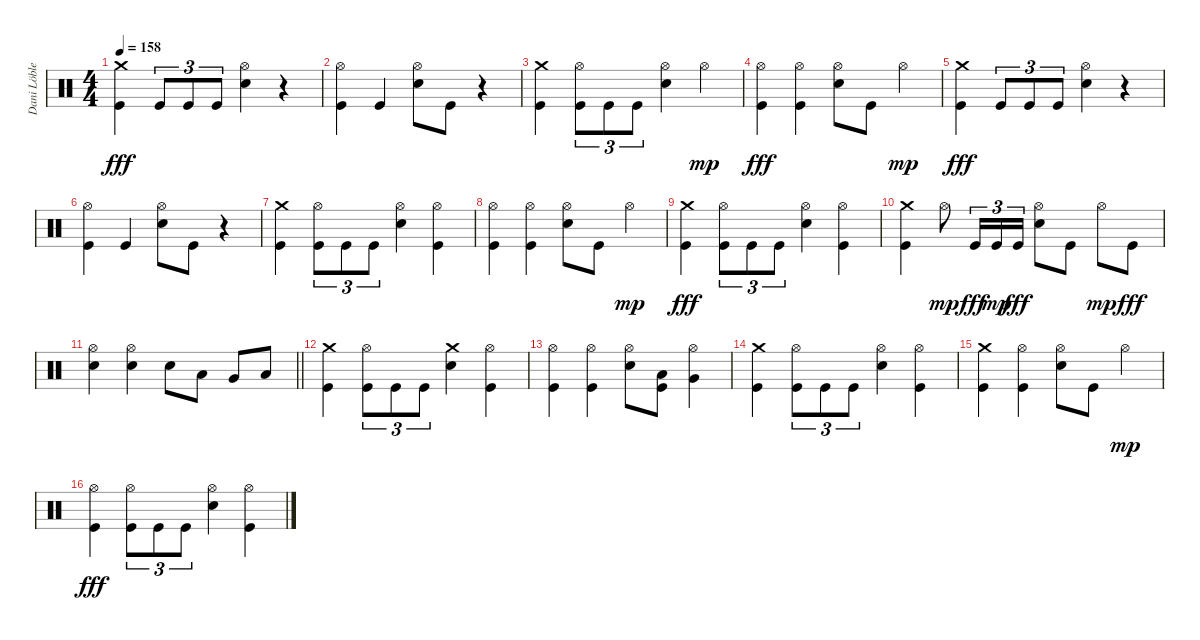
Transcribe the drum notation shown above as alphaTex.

\track ("Dani Löble" "Dani Löble") {instrument percussion}
\staff {score}
\articulation defaults
\ts (4 4)
\tempo 158
\clef neutral
\ks c
("Crash medium (hit)" "Kick (hit)").4{dy fff} "Kick (hit)".8{tu (3 2)} "Kick (hit)".8{tu (3 2)} "Kick (hit)".8{tu (3 2)} ("Hi-Hat (open)" "Electric Snare (hit)").4 r.4 |
("Hi-Hat (open)" "Kick (hit)").4 "Kick (hit)".4 ("Hi-Hat (open)" "Electric Snare (hit)").8 "Kick (hit)".8 r.4 |
("Crash medium (hit)" "Kick (hit)").4 ("Hi-Hat (open)" "Kick (hit)").8{tu (3 2)} "Kick (hit)".8{tu (3 2)} "Kick (hit)".8{tu (3 2)} ("Hi-Hat (open)" "Electric Snare (hit)").4 "Hi-Hat (open)".4{dy mp} |
("Hi-Hat (open)" "Kick (hit)").4{dy fff} ("Hi-Hat (open)" "Kick (hit)").4 ("Hi-Hat (open)" "Electric Snare (hit)").8 "Kick (hit)".8 "Hi-Hat (open)".4{dy mp} |
("Crash medium (hit)" "Kick (hit)").4{dy fff} "Kick (hit)".8{tu (3 2)} "Kick (hit)".8{tu (3 2)} "Kick (hit)".8{tu (3 2)} ("Hi-Hat (open)" "Electric Snare (hit)").4 r.4 |
("Hi-Hat (open)" "Kick (hit)").4 "Kick (hit)".4 ("Hi-Hat (open)" "Electric Snare (hit)").8 "Kick (hit)".8 r.4 |
("Crash medium (hit)" "Kick (hit)").4 ("Hi-Hat (open)" "Kick (hit)").8{tu (3 2)} "Kick (hit)".8{tu (3 2)} "Kick (hit)".8{tu (3 2)} ("Hi-Hat (open)" "Electric Snare (hit)").4 ("Hi-Hat (open)" "Kick (hit)").4 |
("Hi-Hat (open)" "Kick (hit)").4 ("Hi-Hat (open)" "Kick (hit)").4 ("Hi-Hat (open)" "Electric Snare (hit)").8 "Kick (hit)".8 "Hi-Hat (open)".4{dy mp} |
("Crash medium (hit)" "Kick (hit)").4{dy fff} ("Hi-Hat (open)" "Kick (hit)").8{tu (3 2)} "Kick (hit)".8{tu (3 2)} "Kick (hit)".8{tu (3 2)} ("Hi-Hat (open)" "Electric Snare (hit)").4 ("Hi-Hat (open)" "Kick (hit)").4 |
("Crash medium (hit)" "Kick (hit)").4 "Hi-Hat (open)".8{dy mp} "Kick (hit)".16{tu (3 2) dy fff} "Kick (hit)".16{tu (3 2) dy mp} "Kick (hit)".16{tu (3 2) dy fff} ("Hi-Hat (open)" "Electric Snare (hit)").8 "Kick (hit)".8 "Hi-Hat (open)".8{dy mp} "Kick (hit)".8{dy fff} |
\barLineRight lightlight
("Hi-Hat (open)" "Electric Snare (hit)").4 ("Hi-Hat (open)" "Electric Snare (hit)").4 "Electric Snare (hit)".8 "Low Tom (hit)".8 "Very Low Tom (hit)".8 "Low Floor Tom (hit)".8 |
\section ("" "")
("Crash medium (hit)" "Kick (hit)").4 ("Hi-Hat (open)" "Kick (hit)").8{tu (3 2)} "Kick (hit)".8{tu (3 2)} "Kick (hit)".8{tu (3 2)} ("Crash medium (hit)" "Electric Snare (hit)").4 ("Hi-Hat (open)" "Kick (hit)").4 |
("Hi-Hat (open)" "Kick (hit)").4 ("Hi-Hat (open)" "Kick (hit)").4 ("Hi-Hat (open)" "Electric Snare (hit)").8 ("Low Tom (hit)" "Kick (hit)").8 ("Hi-Hat (open)" "Very Low Tom (hit)").4 |
("Crash medium (hit)" "Kick (hit)").4 ("Hi-Hat (open)" "Kick (hit)").8{tu (3 2)} "Kick (hit)".8{tu (3 2)} "Kick (hit)".8{tu (3 2)} ("Hi-Hat (open)" "Electric Snare (hit)").4 ("Hi-Hat (open)" "Kick (hit)").4 |
("Crash medium (hit)" "Kick (hit)").4 ("Hi-Hat (open)" "Kick (hit)").4 ("Hi-Hat (open)" "Electric Snare (hit)").8 "Kick (hit)".8 "Hi-Hat (open)".4{dy mp} |
("Hi-Hat (open)" "Kick (hit)").4{dy fff} ("Hi-Hat (open)" "Kick (hit)").8{tu (3 2)} "Kick (hit)".8{tu (3 2)} "Kick (hit)".8{tu (3 2)} ("Hi-Hat (open)" "Electric Snare (hit)").4 ("Hi-Hat (open)" "Kick (hit)").4
